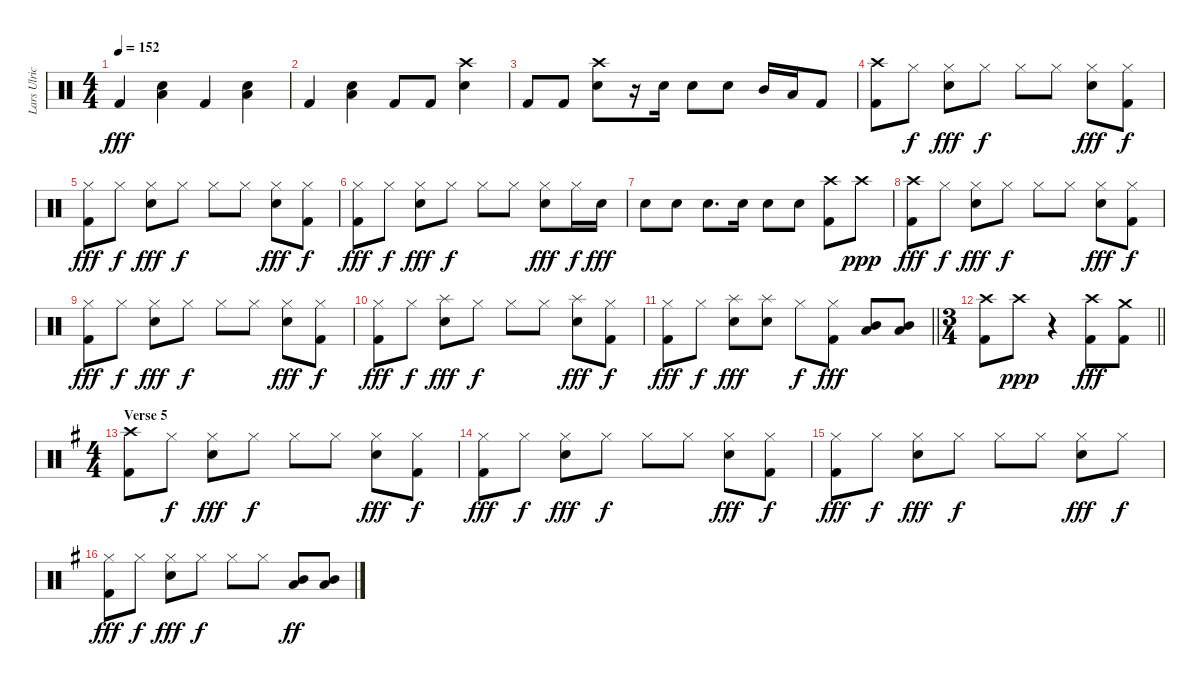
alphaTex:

\track ("Lars Ulrich" "Lars Ulric") {instrument percussion}
\staff {score}
\articulation defaults
\ts (4 4)
\tempo 152
\clef neutral
\ks c "Kick (hit) 2".4{dy fff}
("Low Floor Tom (hit)" "Snare (hit) 2").4 "Kick (hit) 2".4 ("Low Floor Tom (hit)" "Snare (hit) 2").4 |
"Kick (hit) 2".4 ("Low Floor Tom (hit)" "Snare (hit) 2").4 "Kick (hit) 2".8 "Kick (hit) 2".8 ("Crash high (hit)" "Snare (hit) 2").4 |
"Kick (hit) 2".8 "Kick (hit) 2".8 ("Crash high (hit)" "Snare (hit) 2").8 r.16 "Snare (hit) 2".16 "Snare (hit) 2".8 "Snare (hit) 2".8 "Mid Tom (hit)".16 "Low Tom (hit)".16 "Kick (hit) 2".8 |
("Crash high (hit)" "Kick (hit) 2").8 "Hi-Hat (closed)".8{dy f} ("Hi-Hat (closed)" "Snare (hit) 2").8{dy fff} "Hi-Hat (closed)".8{dy f} "Hi-Hat (closed)".8 "Hi-Hat (closed)".8 ("Hi-Hat (closed)" "Snare (hit) 2").8{dy fff} ("Hi-Hat (closed)" "Kick (hit) 2").8{dy f} |
("Hi-Hat (closed)" "Kick (hit) 2").8{dy fff} "Hi-Hat (closed)".8{dy f} ("Hi-Hat (closed)" "Snare (hit) 2").8{dy fff} "Hi-Hat (closed)".8{dy f} "Hi-Hat (closed)".8 "Hi-Hat (closed)".8 ("Hi-Hat (closed)" "Snare (hit) 2").8{dy fff} ("Hi-Hat (closed)" "Kick (hit) 2").8{dy f} |
("Hi-Hat (closed)" "Kick (hit) 2").8{dy fff} "Hi-Hat (closed)".8{dy f} ("Hi-Hat (closed)" "Snare (hit) 2").8{dy fff} "Hi-Hat (closed)".8{dy f} "Hi-Hat (closed)".8 "Hi-Hat (closed)".8 ("Hi-Hat (closed)" "Snare (hit) 2").8{dy fff} "Hi-Hat (closed)".16{dy f} "Snare (hit) 2".16{dy fff} |
"Snare (hit) 2".8 "Snare (hit) 2".8 "Snare (hit) 2".8{d} "Snare (hit) 2".16 "Snare (hit) 2".8 "Snare (hit) 2".8 ("Crash high (hit)" "Kick (hit) 2").8 "Crash high (hit)".8{dy ppp} |
("Crash high (hit)" "Kick (hit) 2").8{dy fff} "Hi-Hat (closed)".8{dy f} ("Hi-Hat (closed)" "Snare (hit) 2").8{dy fff} "Hi-Hat (closed)".8{dy f} "Hi-Hat (closed)".8 "Hi-Hat (closed)".8 ("Hi-Hat (closed)" "Snare (hit) 2").8{dy fff} ("Hi-Hat (closed)" "Kick (hit) 2").8{dy f} |
("Hi-Hat (closed)" "Kick (hit) 2").8{dy fff} "Hi-Hat (closed)".8{dy f} ("Hi-Hat (closed)" "Snare (hit) 2").8{dy fff} "Hi-Hat (closed)".8{dy f} "Hi-Hat (closed)".8 "Hi-Hat (closed)".8 ("Hi-Hat (closed)" "Snare (hit) 2").8{dy fff} ("Hi-Hat (closed)" "Kick (hit) 2").8{dy f} |
("Hi-Hat (closed)" "Kick (hit) 2").8{dy fff} "Hi-Hat (closed)".8{dy f} ("Splash (hit)" "Snare (hit) 2").8{dy fff} "Hi-Hat (closed)".8{dy f} "Hi-Hat (closed)".8 "Hi-Hat (closed)".8 ("Splash (hit)" "Snare (hit) 2").8{dy fff} ("Hi-Hat (closed)" "Kick (hit) 2").8{dy f} |
\barLineRight lightlight
("Hi-Hat (closed)" "Kick (hit) 2").8{dy fff} "Hi-Hat (closed)".8{dy f} ("Splash (hit)" "Snare (hit) 2").8{dy fff} ("Splash (hit)" "Snare (hit) 2").8 "Hi-Hat (closed)".8{dy f} ("Hi-Hat (closed)" "Kick (hit) 2").8{dy fff} ("Mid Tom (hit)" "Low Tom (hit)").8 ("Mid Tom (hit)" "Low Tom (hit)").8 |
\ts (3 4)
\barLineRight lightlight
("Crash high (hit)" "Kick (hit) 2").8 "Crash high (hit)".8{dy ppp volume 0} r.4 ("Crash high (hit)" "Kick (hit) 2").8{dy fff volume 13} ("Crash medium (hit)" "Kick (hit) 2").8 |
\ts (4 4)
\section ("" "Verse 5")
\ks g
("Crash high (hit)" "Kick (hit) 2").8{volume 13} "Hi-Hat (closed)".8{dy f} ("Hi-Hat (closed)" "Snare (hit) 2").8{dy fff} "Hi-Hat (closed)".8{dy f} "Hi-Hat (closed)".8 "Hi-Hat (closed)".8 ("Hi-Hat (closed)" "Snare (hit) 2").8{dy fff} ("Hi-Hat (closed)" "Kick (hit) 2").8{dy f} |
("Hi-Hat (closed)" "Kick (hit) 2").8{dy fff} "Hi-Hat (closed)".8{dy f} ("Hi-Hat (closed)" "Snare (hit) 2").8{dy fff} "Hi-Hat (closed)".8{dy f} "Hi-Hat (closed)".8 "Hi-Hat (closed)".8 ("Hi-Hat (closed)" "Snare (hit) 2").8{dy fff} ("Hi-Hat (closed)" "Kick (hit) 2").8{dy f} |
("Hi-Hat (closed)" "Kick (hit) 2").8{dy fff} "Hi-Hat (closed)".8{dy f} ("Hi-Hat (closed)" "Snare (hit) 2").8{dy fff} "Hi-Hat (closed)".8{dy f} "Hi-Hat (closed)".8 "Hi-Hat (closed)".8 ("Hi-Hat (closed)" "Snare (hit) 2").8{dy fff} "Hi-Hat (closed)".8{dy f} |
("Hi-Hat (closed)" "Kick (hit) 2").8{dy fff} "Hi-Hat (closed)".8{dy f} ("Hi-Hat (closed)" "Snare (hit) 2").8{dy fff} "Hi-Hat (closed)".8{dy f} "Hi-Hat (closed)".8 "Hi-Hat (closed)".8 ("Low Tom (hit)" "Mid Tom (hit)").8{dy ff} ("Low Tom (hit)" "Mid Tom (hit)").8
